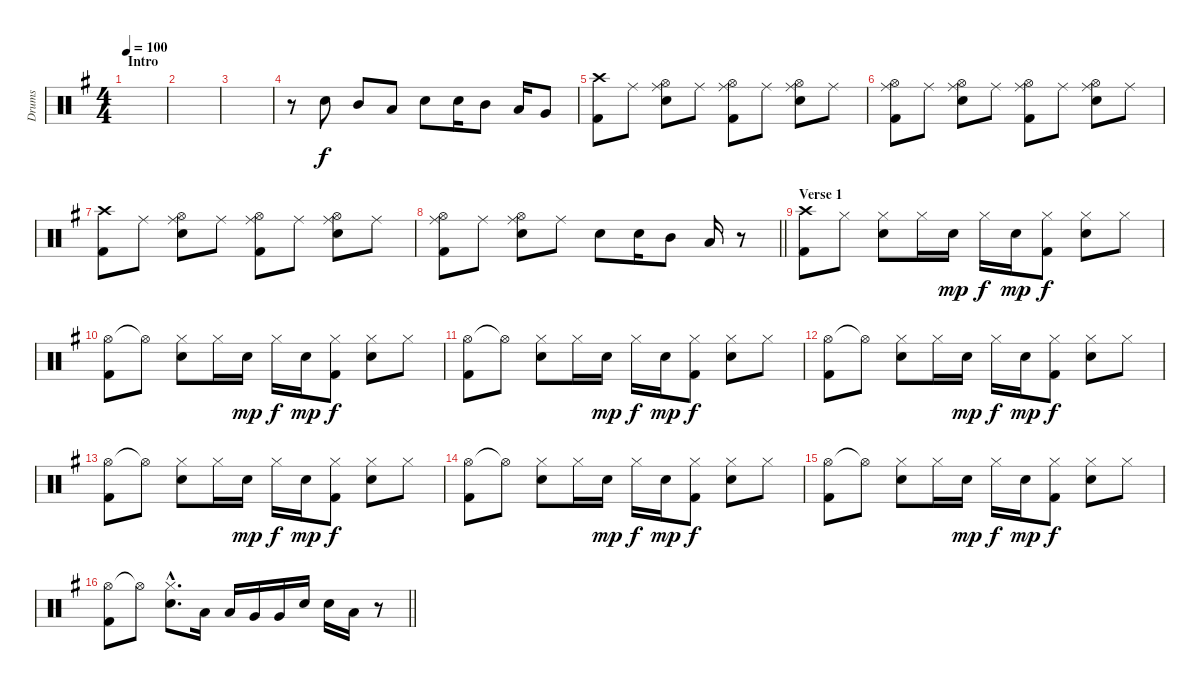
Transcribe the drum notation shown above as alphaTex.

\track ("Drums" "Drums") {instrument percussion}
\staff {score}
\articulation defaults
\ts (4 4)
\section ("" "Intro")
\tempo 100
\clef neutral
\ks g
|
|
|
r.8 "Snare (hit) 2".8 "Mid Tom (hit)".8 "Low Tom (hit)".8 "Snare (hit) 2".8 "Snare (hit) 2".16 "Mid Tom (hit)".8 "Low Tom (hit)".16 "Very Low Tom (hit)".8 |
("Crash high (hit)" "Kick (hit) 2").8 "Ride (middle)".8 ("Hi-Hat (open)" "Ride (middle)" "Snare (hit) 2").8 "Ride (middle)".8 ("Hi-Hat (open)" "Ride (middle)" "Kick (hit) 2").8 "Ride (middle)".8 ("Hi-Hat (open)" "Ride (middle)" "Snare (hit) 2").8 "Ride (middle)".8 |
("Hi-Hat (open)" "Ride (middle)" "Kick (hit) 2").8 "Ride (middle)".8 ("Hi-Hat (open)" "Ride (middle)" "Snare (hit) 2").8 "Ride (middle)".8 ("Hi-Hat (open)" "Ride (middle)" "Kick (hit) 2").8 "Ride (middle)".8 ("Hi-Hat (open)" "Ride (middle)" "Snare (hit) 2").8 "Ride (middle)".8 |
("Crash high (hit)" "Kick (hit) 2").8 "Ride (middle)".8 ("Hi-Hat (open)" "Ride (middle)" "Snare (hit) 2").8 "Ride (middle)".8 ("Hi-Hat (open)" "Ride (middle)" "Kick (hit) 2").8 "Ride (middle)".8 ("Hi-Hat (open)" "Ride (middle)" "Snare (hit) 2").8 "Ride (middle)".8 |
\barLineRight lightlight
("Hi-Hat (open)" "Ride (middle)" "Kick (hit) 2").8 "Ride (middle)".8 ("Hi-Hat (open)" "Ride (middle)" "Snare (hit) 2").8 "Ride (middle)".8 "Snare (hit) 2".8 "Snare (hit) 2".16 "Mid Tom (hit)".8 "Low Tom (hit)".16 r.8 |
\section ("" "Verse 1")
("Crash high (hit)" "Kick (hit) 2").8 "Hi-Hat (closed)".8 ("Hi-Hat (closed)" "Snare (hit) 2").8 "Hi-Hat (closed)".16 "Snare (hit) 2".16{dy mp} "Hi-Hat (closed)".16{dy f} "Snare (hit) 2".16{dy mp} ("Hi-Hat (closed)" "Kick (hit) 2").8{dy f} ("Hi-Hat (closed)" "Snare (hit) 2").8 "Hi-Hat (closed)".8 |
("Hi-Hat (open)" "Kick (hit) 2").8 "Hi-Hat (open)"{t}.8 ("Hi-Hat (closed)" "Snare (hit) 2").8 "Hi-Hat (closed)".16 "Snare (hit) 2".16{dy mp} "Hi-Hat (closed)".16{dy f} "Snare (hit) 2".16{dy mp} ("Hi-Hat (closed)" "Kick (hit) 2").8{dy f} ("Hi-Hat (closed)" "Snare (hit) 2").8 "Hi-Hat (closed)".8 |
("Hi-Hat (open)" "Kick (hit) 2").8 "Hi-Hat (open)"{t}.8 ("Hi-Hat (closed)" "Snare (hit) 2").8 "Hi-Hat (closed)".16 "Snare (hit) 2".16{dy mp} "Hi-Hat (closed)".16{dy f} "Snare (hit) 2".16{dy mp} ("Hi-Hat (closed)" "Kick (hit) 2").8{dy f} ("Hi-Hat (closed)" "Snare (hit) 2").8 "Hi-Hat (closed)".8 |
("Hi-Hat (open)" "Kick (hit) 2").8 "Hi-Hat (open)"{t}.8 ("Hi-Hat (closed)" "Snare (hit) 2").8 "Hi-Hat (closed)".16 "Snare (hit) 2".16{dy mp} "Hi-Hat (closed)".16{dy f} "Snare (hit) 2".16{dy mp} ("Hi-Hat (closed)" "Kick (hit) 2").8{dy f} ("Hi-Hat (closed)" "Snare (hit) 2").8 "Hi-Hat (closed)".8 |
("Hi-Hat (open)" "Kick (hit) 2").8 "Hi-Hat (open)"{t}.8 ("Hi-Hat (closed)" "Snare (hit) 2").8 "Hi-Hat (closed)".16 "Snare (hit) 2".16{dy mp} "Hi-Hat (closed)".16{dy f} "Snare (hit) 2".16{dy mp} ("Hi-Hat (closed)" "Kick (hit) 2").8{dy f} ("Hi-Hat (closed)" "Snare (hit) 2").8 "Hi-Hat (closed)".8 |
("Hi-Hat (open)" "Kick (hit) 2").8 "Hi-Hat (open)"{t}.8 ("Hi-Hat (closed)" "Snare (hit) 2").8 "Hi-Hat (closed)".16 "Snare (hit) 2".16{dy mp} "Hi-Hat (closed)".16{dy f} "Snare (hit) 2".16{dy mp} ("Hi-Hat (closed)" "Kick (hit) 2").8{dy f} ("Hi-Hat (closed)" "Snare (hit) 2").8 "Hi-Hat (closed)".8 |
("Hi-Hat (open)" "Kick (hit) 2").8 "Hi-Hat (open)"{t}.8 ("Hi-Hat (closed)" "Snare (hit) 2").8 "Hi-Hat (closed)".16 "Snare (hit) 2".16{dy mp} "Hi-Hat (closed)".16{dy f} "Snare (hit) 2".16{dy mp} ("Hi-Hat (closed)" "Kick (hit) 2").8{dy f} ("Hi-Hat (closed)" "Snare (hit) 2").8 "Hi-Hat (closed)".8 |
\barLineRight lightlight
("Hi-Hat (open)" "Kick (hit) 2").8 "Hi-Hat (open)"{t}.8 ("Hi-Hat (closed)"{hac} "Snare (hit) 2"{hac}).8{d} "Low Tom (hit)".16 "Low Tom (hit)".16 "Very Low Tom (hit)".16 "Very Low Tom (hit)".16 "Snare (hit) 2".16 "Snare (hit) 2".16 "Low Tom (hit)".16 r.8
